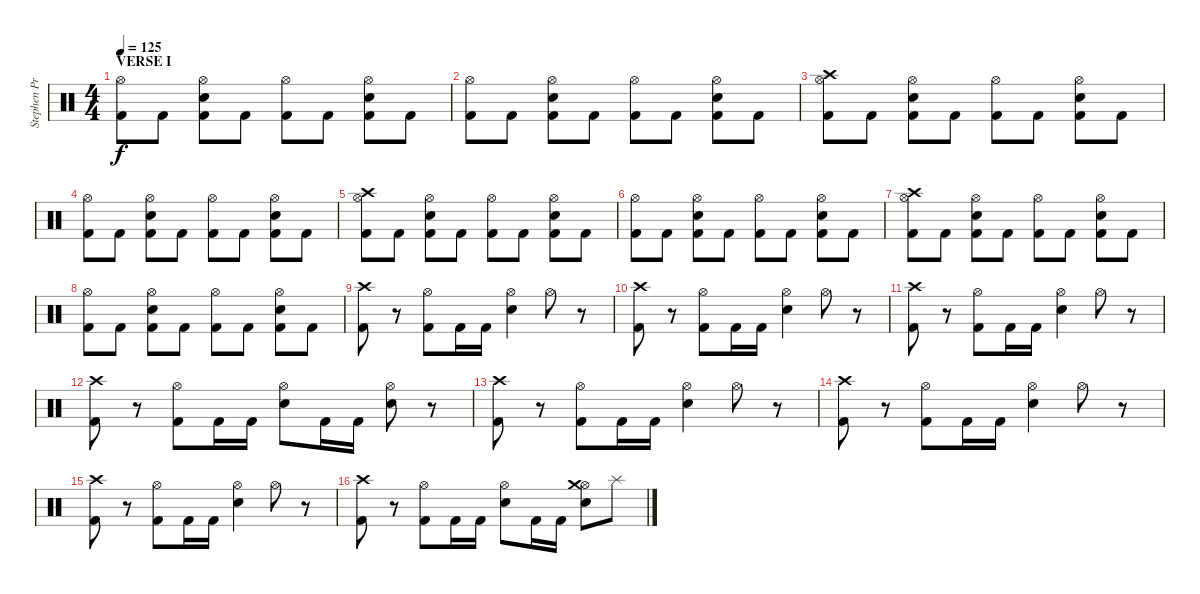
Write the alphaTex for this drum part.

\track ("Stephen Priestly" "Stephen Pr") {instrument percussion}
\staff {score}
\articulation defaults
\ts (4 4)
\section ("" "VERSE I")
\tempo 125
\clef neutral
\ks c
("Hi-Hat (open)" "Kick (hit) 2").8{dy f} "Kick (hit) 2".8 ("Hi-Hat (open)" "Snare (hit) 2" "Kick (hit) 2").8 "Kick (hit) 2".8 ("Hi-Hat (open)" "Kick (hit) 2").8 "Kick (hit) 2".8 ("Hi-Hat (open)" "Snare (hit) 2" "Kick (hit) 2").8 "Kick (hit) 2".8 |
("Hi-Hat (open)" "Kick (hit) 2").8 "Kick (hit) 2".8 ("Hi-Hat (open)" "Snare (hit) 2" "Kick (hit) 2").8 "Kick (hit) 2".8 ("Hi-Hat (open)" "Kick (hit) 2").8 "Kick (hit) 2".8 ("Hi-Hat (open)" "Snare (hit) 2" "Kick (hit) 2").8 "Kick (hit) 2".8 |
("Hi-Hat (open)" "Crash high (hit)" "Kick (hit) 2").8 "Kick (hit) 2".8 ("Hi-Hat (open)" "Snare (hit) 2" "Kick (hit) 2").8 "Kick (hit) 2".8 ("Hi-Hat (open)" "Kick (hit) 2").8 "Kick (hit) 2".8 ("Hi-Hat (open)" "Snare (hit) 2" "Kick (hit) 2").8 "Kick (hit) 2".8 |
("Hi-Hat (open)" "Kick (hit) 2").8 "Kick (hit) 2".8 ("Hi-Hat (open)" "Snare (hit) 2" "Kick (hit) 2").8 "Kick (hit) 2".8 ("Hi-Hat (open)" "Kick (hit) 2").8 "Kick (hit) 2".8 ("Hi-Hat (open)" "Snare (hit) 2" "Kick (hit) 2").8 "Kick (hit) 2".8 |
("Hi-Hat (open)" "Crash high (hit)" "Kick (hit) 2").8 "Kick (hit) 2".8 ("Hi-Hat (open)" "Snare (hit) 2" "Kick (hit) 2").8 "Kick (hit) 2".8 ("Hi-Hat (open)" "Kick (hit) 2").8 "Kick (hit) 2".8 ("Hi-Hat (open)" "Snare (hit) 2" "Kick (hit) 2").8 "Kick (hit) 2".8 |
("Hi-Hat (open)" "Kick (hit) 2").8 "Kick (hit) 2".8 ("Hi-Hat (open)" "Snare (hit) 2" "Kick (hit) 2").8 "Kick (hit) 2".8 ("Hi-Hat (open)" "Kick (hit) 2").8 "Kick (hit) 2".8 ("Hi-Hat (open)" "Snare (hit) 2" "Kick (hit) 2").8 "Kick (hit) 2".8 |
("Hi-Hat (open)" "Crash high (hit)" "Kick (hit) 2").8 "Kick (hit) 2".8 ("Hi-Hat (open)" "Snare (hit) 2" "Kick (hit) 2").8 "Kick (hit) 2".8 ("Hi-Hat (open)" "Kick (hit) 2").8 "Kick (hit) 2".8 ("Hi-Hat (open)" "Snare (hit) 2" "Kick (hit) 2").8 "Kick (hit) 2".8 |
("Hi-Hat (open)" "Kick (hit) 2").8 "Kick (hit) 2".8 ("Hi-Hat (open)" "Snare (hit) 2" "Kick (hit) 2").8 "Kick (hit) 2".8 ("Hi-Hat (open)" "Kick (hit) 2").8 "Kick (hit) 2".8 ("Hi-Hat (open)" "Snare (hit) 2" "Kick (hit) 2").8 "Kick (hit) 2".8 |
("Crash high (hit)" "Kick (hit) 2").8 r.8 ("Hi-Hat (open)" "Kick (hit) 2").8 "Kick (hit) 2".16 "Kick (hit) 2".16 ("Hi-Hat (open)" "Snare (hit) 2").4 "Hi-Hat (open)".8 r.8 |
("Crash high (hit)" "Kick (hit) 2").8 r.8 ("Hi-Hat (open)" "Kick (hit) 2").8 "Kick (hit) 2".16 "Kick (hit) 2".16 ("Hi-Hat (open)" "Snare (hit) 2").4 "Hi-Hat (open)".8 r.8 |
("Crash high (hit)" "Kick (hit) 2").8 r.8 ("Hi-Hat (open)" "Kick (hit) 2").8 "Kick (hit) 2".16 "Kick (hit) 2".16 ("Hi-Hat (open)" "Snare (hit) 2").4 "Hi-Hat (open)".8 r.8 |
("Crash high (hit)" "Kick (hit) 2").8 r.8 ("Hi-Hat (open)" "Kick (hit) 2").8 "Kick (hit) 2".16 "Kick (hit) 2".16 ("Hi-Hat (open)" "Snare (hit) 2").8 "Kick (hit) 2".16 "Kick (hit) 2".16 ("Hi-Hat (open)" "Snare (hit) 2").8 r.8 |
("Crash high (hit)" "Kick (hit) 2").8 r.8 ("Hi-Hat (open)" "Kick (hit) 2").8 "Kick (hit) 2".16 "Kick (hit) 2".16 ("Hi-Hat (open)" "Snare (hit) 2").4 "Hi-Hat (open)".8 r.8 |
("Crash high (hit)" "Kick (hit) 2").8 r.8 ("Hi-Hat (open)" "Kick (hit) 2").8 "Kick (hit) 2".16 "Kick (hit) 2".16 ("Hi-Hat (open)" "Snare (hit) 2").4 "Hi-Hat (open)".8 r.8 |
("Crash high (hit)" "Kick (hit) 2").8 r.8 ("Hi-Hat (open)" "Kick (hit) 2").8 "Kick (hit) 2".16 "Kick (hit) 2".16 ("Hi-Hat (open)" "Snare (hit) 2").4 "Hi-Hat (open)".8 r.8 |
("Crash high (hit)" "Kick (hit) 2").8 r.8 ("Hi-Hat (open)" "Kick (hit) 2").8 "Kick (hit) 2".16 "Kick (hit) 2".16 ("Hi-Hat (open)" "Snare (hit) 2").8 "Kick (hit) 2".16 "Kick (hit) 2".16 ("Hi-Hat (open)" "Crash medium (hit)" "Snare (hit) 2").8 "Splash (hit)".8
